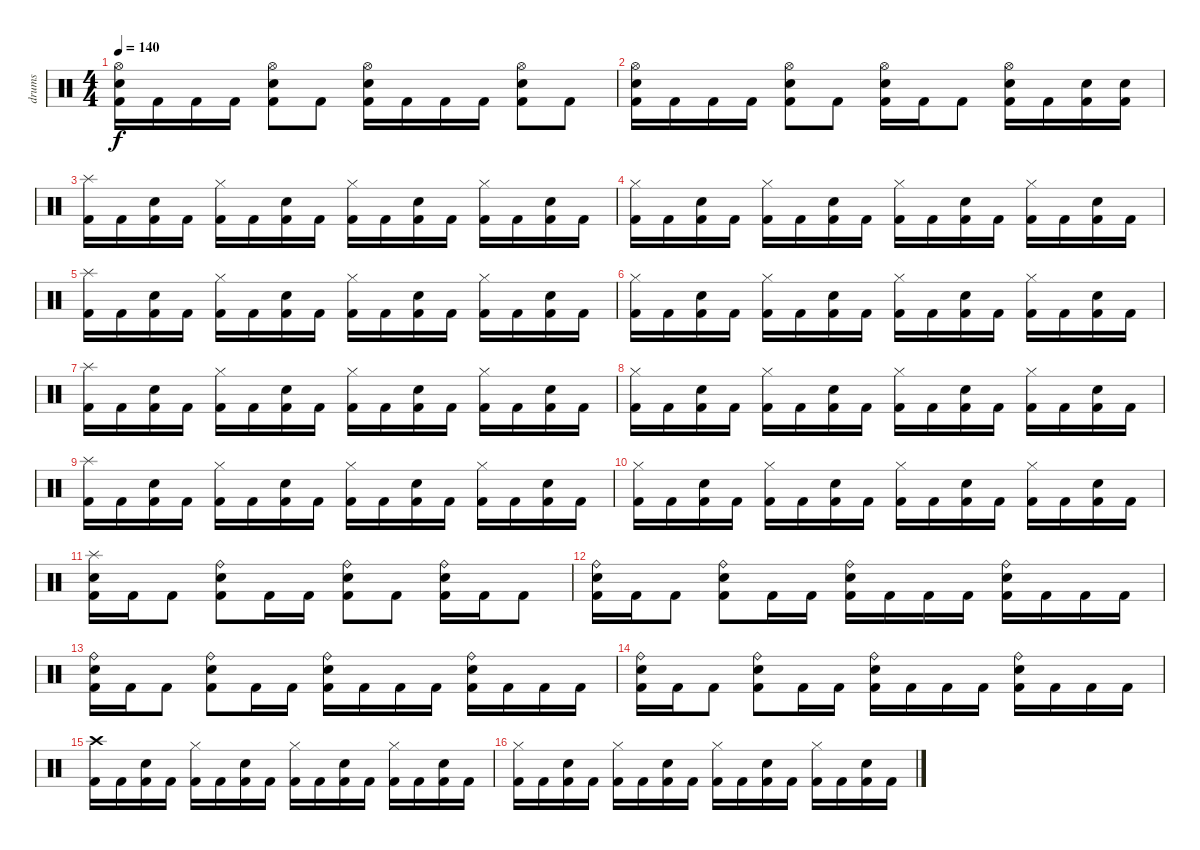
\track ("drums" "drums") {instrument percussion}
\staff {score}
\articulation defaults
\ts (4 4)
\tempo 140
\clef neutral
\ks c
("Hi-Hat (open)" "Electric Snare (hit)" "Kick (hit) 2").16{dy f} "Kick (hit) 2".16 "Kick (hit) 2".16 "Kick (hit) 2".16 ("Hi-Hat (open)" "Electric Snare (hit)" "Kick (hit) 2").8 "Kick (hit) 2".8 ("Hi-Hat (open)" "Electric Snare (hit)" "Kick (hit) 2").16 "Kick (hit) 2".16 "Kick (hit) 2".16 "Kick (hit) 2".16 ("Hi-Hat (open)" "Electric Snare (hit)" "Kick (hit) 2").8 "Kick (hit) 2".8 |
("Hi-Hat (open)" "Electric Snare (hit)" "Kick (hit) 2").16 "Kick (hit) 2".16 "Kick (hit) 2".16 "Kick (hit) 2".16 ("Hi-Hat (open)" "Electric Snare (hit)" "Kick (hit) 2").8 "Kick (hit) 2".8 ("Hi-Hat (open)" "Electric Snare (hit)" "Kick (hit) 2").16 "Kick (hit) 2".16 "Kick (hit) 2".8 ("Hi-Hat (open)" "Electric Snare (hit)" "Kick (hit) 2").16 "Kick (hit) 2".16 ("Electric Snare (hit)" "Kick (hit) 2").16 ("Electric Snare (hit)" "Kick (hit) 2").16 |
("Splash (hit)" "Kick (hit) 2").16 "Kick (hit) 2".16 ("Electric Snare (hit)" "Kick (hit) 2").16 "Kick (hit) 2".16 ("Hi-Hat (closed)" "Kick (hit) 2").16 "Kick (hit) 2".16 ("Electric Snare (hit)" "Kick (hit) 2").16 "Kick (hit) 2".16 ("Hi-Hat (closed)" "Kick (hit) 2").16 "Kick (hit) 2".16 ("Electric Snare (hit)" "Kick (hit) 2").16 "Kick (hit) 2".16 ("Hi-Hat (closed)" "Kick (hit) 2").16 "Kick (hit) 2".16 ("Electric Snare (hit)" "Kick (hit) 2").16 "Kick (hit) 2".16 |
("Hi-Hat (closed)" "Kick (hit) 2").16 "Kick (hit) 2".16 ("Electric Snare (hit)" "Kick (hit) 2").16 "Kick (hit) 2".16 ("Hi-Hat (closed)" "Kick (hit) 2").16 "Kick (hit) 2".16 ("Electric Snare (hit)" "Kick (hit) 2").16 "Kick (hit) 2".16 ("Hi-Hat (closed)" "Kick (hit) 2").16 "Kick (hit) 2".16 ("Electric Snare (hit)" "Kick (hit) 2").16 "Kick (hit) 2".16 ("Hi-Hat (closed)" "Kick (hit) 2").16 "Kick (hit) 2".16 ("Electric Snare (hit)" "Kick (hit) 2").16 "Kick (hit) 2".16 |
("Splash (hit)" "Kick (hit) 2").16 "Kick (hit) 2".16 ("Electric Snare (hit)" "Kick (hit) 2").16 "Kick (hit) 2".16 ("Hi-Hat (closed)" "Kick (hit) 2").16 "Kick (hit) 2".16 ("Electric Snare (hit)" "Kick (hit) 2").16 "Kick (hit) 2".16 ("Hi-Hat (closed)" "Kick (hit) 2").16 "Kick (hit) 2".16 ("Electric Snare (hit)" "Kick (hit) 2").16 "Kick (hit) 2".16 ("Hi-Hat (closed)" "Kick (hit) 2").16 "Kick (hit) 2".16 ("Electric Snare (hit)" "Kick (hit) 2").16 "Kick (hit) 2".16 |
("Hi-Hat (closed)" "Kick (hit) 2").16 "Kick (hit) 2".16 ("Electric Snare (hit)" "Kick (hit) 2").16 "Kick (hit) 2".16 ("Hi-Hat (closed)" "Kick (hit) 2").16 "Kick (hit) 2".16 ("Electric Snare (hit)" "Kick (hit) 2").16 "Kick (hit) 2".16 ("Hi-Hat (closed)" "Kick (hit) 2").16 "Kick (hit) 2".16 ("Electric Snare (hit)" "Kick (hit) 2").16 "Kick (hit) 2".16 ("Hi-Hat (closed)" "Kick (hit) 2").16 "Kick (hit) 2".16 ("Electric Snare (hit)" "Kick (hit) 2").16 "Kick (hit) 2".16 |
("Splash (hit)" "Kick (hit) 2").16 "Kick (hit) 2".16 ("Electric Snare (hit)" "Kick (hit) 2").16 "Kick (hit) 2".16 ("Hi-Hat (closed)" "Kick (hit) 2").16 "Kick (hit) 2".16 ("Electric Snare (hit)" "Kick (hit) 2").16 "Kick (hit) 2".16 ("Hi-Hat (closed)" "Kick (hit) 2").16 "Kick (hit) 2".16 ("Electric Snare (hit)" "Kick (hit) 2").16 "Kick (hit) 2".16 ("Hi-Hat (closed)" "Kick (hit) 2").16 "Kick (hit) 2".16 ("Electric Snare (hit)" "Kick (hit) 2").16 "Kick (hit) 2".16 |
("Hi-Hat (closed)" "Kick (hit) 2").16 "Kick (hit) 2".16 ("Electric Snare (hit)" "Kick (hit) 2").16 "Kick (hit) 2".16 ("Hi-Hat (closed)" "Kick (hit) 2").16 "Kick (hit) 2".16 ("Electric Snare (hit)" "Kick (hit) 2").16 "Kick (hit) 2".16 ("Hi-Hat (closed)" "Kick (hit) 2").16 "Kick (hit) 2".16 ("Electric Snare (hit)" "Kick (hit) 2").16 "Kick (hit) 2".16 ("Hi-Hat (closed)" "Kick (hit) 2").16 "Kick (hit) 2".16 ("Electric Snare (hit)" "Kick (hit) 2").16 "Kick (hit) 2".16 |
("Splash (hit)" "Kick (hit) 2").16 "Kick (hit) 2".16 ("Electric Snare (hit)" "Kick (hit) 2").16 "Kick (hit) 2".16 ("Hi-Hat (closed)" "Kick (hit) 2").16 "Kick (hit) 2".16 ("Electric Snare (hit)" "Kick (hit) 2").16 "Kick (hit) 2".16 ("Hi-Hat (closed)" "Kick (hit) 2").16 "Kick (hit) 2".16 ("Electric Snare (hit)" "Kick (hit) 2").16 "Kick (hit) 2".16 ("Hi-Hat (closed)" "Kick (hit) 2").16 "Kick (hit) 2".16 ("Electric Snare (hit)" "Kick (hit) 2").16 "Kick (hit) 2".16 |
("Hi-Hat (closed)" "Kick (hit) 2").16 "Kick (hit) 2".16 ("Electric Snare (hit)" "Kick (hit) 2").16 "Kick (hit) 2".16 ("Hi-Hat (closed)" "Kick (hit) 2").16 "Kick (hit) 2".16 ("Electric Snare (hit)" "Kick (hit) 2").16 "Kick (hit) 2".16 ("Hi-Hat (closed)" "Kick (hit) 2").16 "Kick (hit) 2".16 ("Electric Snare (hit)" "Kick (hit) 2").16 "Kick (hit) 2".16 ("Hi-Hat (closed)" "Kick (hit) 2").16 "Kick (hit) 2".16 ("Electric Snare (hit)" "Kick (hit) 2").16 "Kick (hit) 2".16 |
("Splash (hit)" "Electric Snare (hit)" "Kick (hit) 2").16 "Kick (hit) 2".16 "Kick (hit) 2".8 ("Ride (bell)" "Electric Snare (hit)" "Kick (hit) 2").8 "Kick (hit) 2".16 "Kick (hit) 2".16 ("Ride (bell)" "Electric Snare (hit)" "Kick (hit) 2").8 "Kick (hit) 2".8 ("Ride (bell)" "Electric Snare (hit)" "Kick (hit) 2").16 "Kick (hit) 2".16 "Kick (hit) 2".8 |
("Ride (bell)" "Electric Snare (hit)" "Kick (hit) 2").16 "Kick (hit) 2".16 "Kick (hit) 2".8 ("Ride (bell)" "Electric Snare (hit)" "Kick (hit) 2").8 "Kick (hit) 2".16 "Kick (hit) 2".16 ("Ride (bell)" "Electric Snare (hit)" "Kick (hit) 2").16 "Kick (hit) 2".16 "Kick (hit) 2".16 "Kick (hit) 2".16 ("Ride (bell)" "Electric Snare (hit)" "Kick (hit) 2").16 "Kick (hit) 2".16 "Kick (hit) 2".16 "Kick (hit) 2".16 |
("Ride (bell)" "Electric Snare (hit)" "Kick (hit) 2").16 "Kick (hit) 2".16 "Kick (hit) 2".8 ("Ride (bell)" "Electric Snare (hit)" "Kick (hit) 2").8 "Kick (hit) 2".16 "Kick (hit) 2".16 ("Ride (bell)" "Electric Snare (hit)" "Kick (hit) 2").16 "Kick (hit) 2".16 "Kick (hit) 2".16 "Kick (hit) 2".16 ("Ride (bell)" "Electric Snare (hit)" "Kick (hit) 2").16 "Kick (hit) 2".16 "Kick (hit) 2".16 "Kick (hit) 2".16 |
("Ride (bell)" "Electric Snare (hit)" "Kick (hit) 2").16 "Kick (hit) 2".16 "Kick (hit) 2".8 ("Ride (bell)" "Electric Snare (hit)" "Kick (hit) 2").8 "Kick (hit) 2".16 "Kick (hit) 2".16 ("Ride (bell)" "Electric Snare (hit)" "Kick (hit) 2").16 "Kick (hit) 2".16 "Kick (hit) 2".16 "Kick (hit) 2".16 ("Ride (bell)" "Electric Snare (hit)" "Kick (hit) 2").16 "Kick (hit) 2".16 "Kick (hit) 2".16 "Kick (hit) 2".16 |
("Crash high (hit)" "Kick (hit) 2").16 "Kick (hit) 2".16 ("Electric Snare (hit)" "Kick (hit) 2").16 "Kick (hit) 2".16 ("Hi-Hat (closed)" "Kick (hit) 2").16 "Kick (hit) 2".16 ("Electric Snare (hit)" "Kick (hit) 2").16 "Kick (hit) 2".16 ("Hi-Hat (closed)" "Kick (hit) 2").16 "Kick (hit) 2".16 ("Electric Snare (hit)" "Kick (hit) 2").16 "Kick (hit) 2".16 ("Hi-Hat (closed)" "Kick (hit) 2").16 "Kick (hit) 2".16 ("Electric Snare (hit)" "Kick (hit) 2").16 "Kick (hit) 2".16 |
("Hi-Hat (closed)" "Kick (hit) 2").16 "Kick (hit) 2".16 ("Electric Snare (hit)" "Kick (hit) 2").16 "Kick (hit) 2".16 ("Hi-Hat (closed)" "Kick (hit) 2").16 "Kick (hit) 2".16 ("Electric Snare (hit)" "Kick (hit) 2").16 "Kick (hit) 2".16 ("Hi-Hat (closed)" "Kick (hit) 2").16 "Kick (hit) 2".16 ("Electric Snare (hit)" "Kick (hit) 2").16 "Kick (hit) 2".16 ("Hi-Hat (closed)" "Kick (hit) 2").16 "Kick (hit) 2".16 ("Electric Snare (hit)" "Kick (hit) 2").16 "Kick (hit) 2".16
